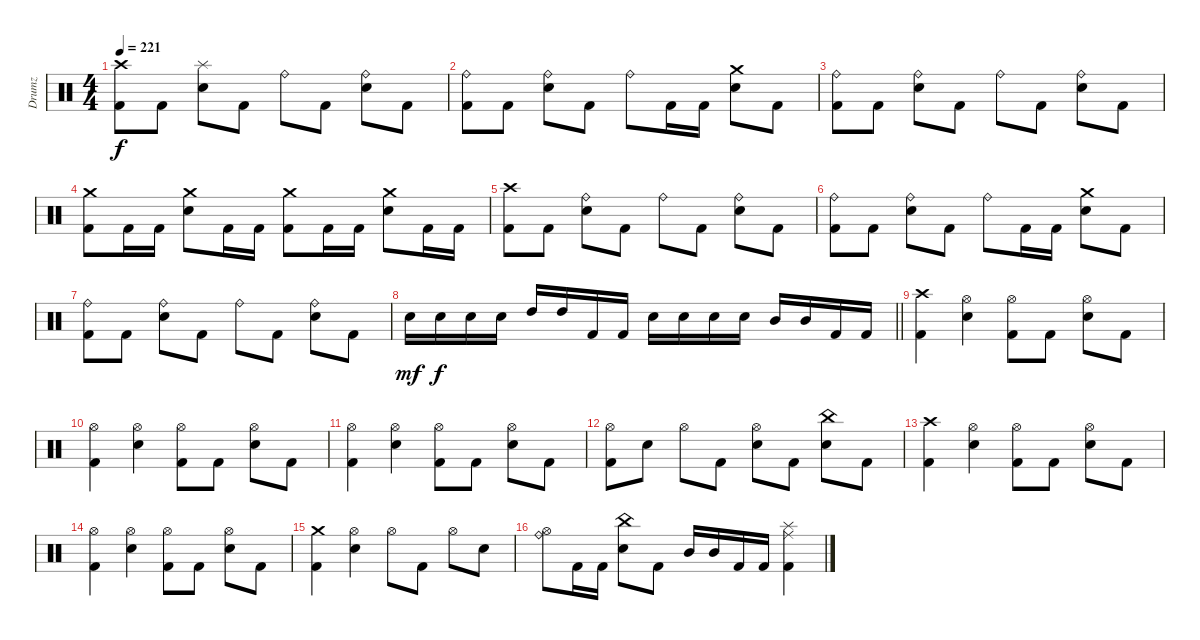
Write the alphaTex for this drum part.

\track ("Drumz" "Drumz") {instrument percussion}
\staff {score}
\articulation defaults
\ts (4 4)
\section ("" "")
\tempo 221
\clef neutral
\ks c
("Crash high (hit)" "Kick (hit) 2").8{dy f} "Kick (hit) 2".8 ("Splash (hit)" "Electric Snare (hit)").8 "Kick (hit) 2".8 "Ride (bell)".8 "Kick (hit) 2".8 ("Ride (bell)" "Electric Snare (hit)").8 "Kick (hit) 2".8 |
("Ride (bell)" "Kick (hit) 2").8 "Kick (hit) 2".8 ("Ride (bell)" "Electric Snare (hit)").8 "Kick (hit) 2".8 "Ride (bell)".8 "Kick (hit) 2".16 "Kick (hit) 2".16 ("Crash medium (hit)" "Electric Snare (hit)").8 "Kick (hit) 2".8 |
("Ride (bell)" "Kick (hit) 2").8 "Kick (hit) 2".8 ("Ride (bell)" "Electric Snare (hit)").8 "Kick (hit) 2".8 "Ride (bell)".8 "Kick (hit) 2".8 ("Ride (bell)" "Electric Snare (hit)").8 "Kick (hit) 2".8 |
("Crash medium (hit)" "Kick (hit) 2").8 "Kick (hit) 2".16 "Kick (hit) 2".16 ("Crash medium (hit)" "Electric Snare (hit)").8 "Kick (hit) 2".16 "Kick (hit) 2".16 ("Crash medium (hit)" "Kick (hit) 2").8 "Kick (hit) 2".16 "Kick (hit) 2".16 ("Crash medium (hit)" "Electric Snare (hit)").8 "Kick (hit) 2".16 "Kick (hit) 2".16 |
("Crash high (hit)" "Kick (hit) 2").8 "Kick (hit) 2".8 ("Ride (bell)" "Electric Snare (hit)").8 "Kick (hit) 2".8 "Ride (bell)".8 "Kick (hit) 2".8 ("Ride (bell)" "Electric Snare (hit)").8 "Kick (hit) 2".8 |
("Ride (bell)" "Kick (hit) 2").8 "Kick (hit) 2".8 ("Ride (bell)" "Electric Snare (hit)").8 "Kick (hit) 2".8 "Ride (bell)".8 "Kick (hit) 2".16 "Kick (hit) 2".16 ("Crash medium (hit)" "Electric Snare (hit)").8 "Kick (hit) 2".8 |
("Ride (bell)" "Kick (hit) 2").8 "Kick (hit) 2".8 ("Ride (bell)" "Electric Snare (hit)").8 "Kick (hit) 2".8 "Ride (bell)".8 "Kick (hit) 2".8 ("Ride (bell)" "Electric Snare (hit)").8 "Kick (hit) 2".8 |
\barLineRight lightlight "Electric Snare (hit)".16{dy mf} "Electric Snare (hit)".16{dy f} "Electric Snare (hit)".16 "Electric Snare (hit)".16 "High Tom (hit)".16 "High Tom (hit)".16 "Kick (hit) 2".16 "Kick (hit) 2".16 "Electric Snare (hit)".16 "Electric Snare (hit)".16 "Electric Snare (hit)".16 "Electric Snare (hit)".16 "Mid Tom (hit)".16 "Mid Tom (hit)".16 "Kick (hit) 2".16 "Kick (hit) 2".16
|
\section ("" "")
("Crash high (hit)" "Kick (hit) 2").4 ("Hi-Hat (open)" "Electric Snare (hit)").4 ("Hi-Hat (open)" "Kick (hit) 2").8 "Kick (hit) 2".8 ("Hi-Hat (open)" "Electric Snare (hit)").8 "Kick (hit) 2".8 |
("Hi-Hat (open)" "Kick (hit) 2").4 ("Hi-Hat (open)" "Electric Snare (hit)").4 ("Hi-Hat (open)" "Kick (hit) 2").8 "Kick (hit) 2".8 ("Hi-Hat (open)" "Electric Snare (hit)").8 "Kick (hit) 2".8 |
("Hi-Hat (open)" "Kick (hit) 2").4 ("Hi-Hat (open)" "Electric Snare (hit)").4 ("Hi-Hat (open)" "Kick (hit) 2").8 "Kick (hit) 2".8 ("Hi-Hat (open)" "Electric Snare (hit)").8 "Kick (hit) 2".8 |
("Hi-Hat (open)" "Kick (hit) 2").8 "Electric Snare (hit)".8 "Hi-Hat (open)".8 "Kick (hit) 2".8 ("Hi-Hat (open)" "Electric Snare (hit)").8 "Kick (hit) 2".8 ("China (hit)" "Electric Snare (hit)").8 "Kick (hit) 2".8 |
("Crash high (hit)" "Kick (hit) 2").4 ("Hi-Hat (open)" "Electric Snare (hit)").4 ("Hi-Hat (open)" "Kick (hit) 2").8 "Kick (hit) 2".8 ("Hi-Hat (open)" "Electric Snare (hit)").8 "Kick (hit) 2".8 |
("Hi-Hat (open)" "Kick (hit) 2").4 ("Hi-Hat (open)" "Electric Snare (hit)").4 ("Hi-Hat (open)" "Kick (hit) 2").8 "Kick (hit) 2".8 ("Hi-Hat (open)" "Electric Snare (hit)").8 "Kick (hit) 2".8 |
("Crash medium (hit)" "Kick (hit) 2").4 ("Hi-Hat (open)" "Electric Snare (hit)").4 "Hi-Hat (open)".8 "Kick (hit) 2".8 "Hi-Hat (open)".8 "Electric Snare (hit)".8 |
("Hi-Hat (open)" "Ride (bell)").8 "Kick (hit) 2".16 "Kick (hit) 2".16 ("China (hit)" "Electric Snare (hit)").8 "Kick (hit) 2".8 "Mid Tom (hit)".16 "Mid Tom (hit)".16 "Kick (hit) 2".16 "Kick (hit) 2".16 ("Splash (hit)" "Ride (middle)" "Kick (hit) 2").4
